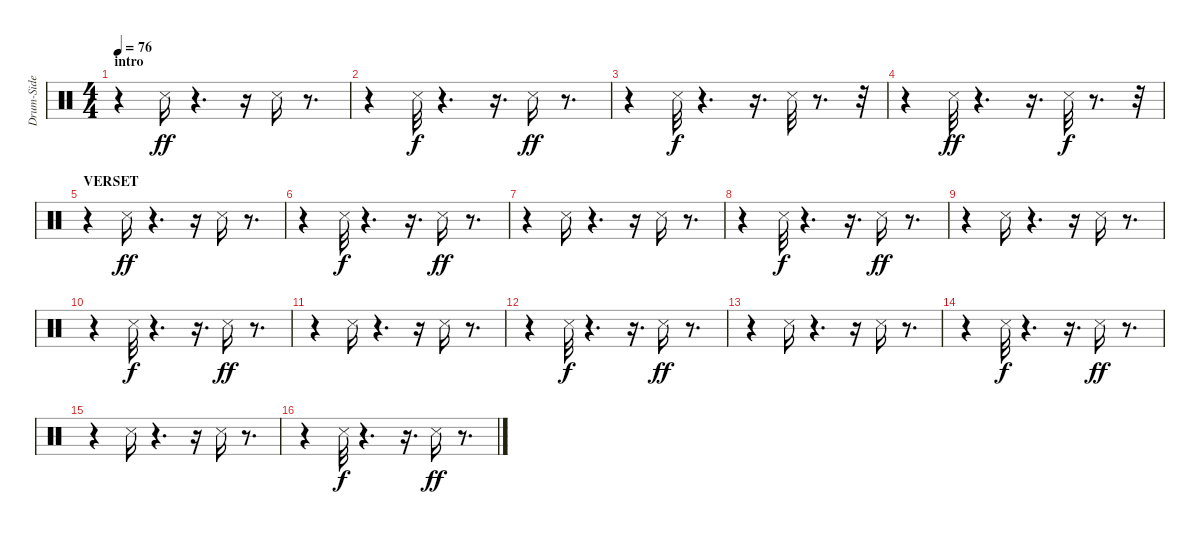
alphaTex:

\track ("Drum-Side Stick" "Drum-Side ") {instrument percussion}
\staff {score}
\articulation defaults
\ts (4 4)
\section ("" "intro")
\tempo 76
\clef neutral
\ks c
r.4{dy ff} "Snare (side stick) 3".16 r.4{d} r.16 "Snare (side stick) 3".16 r.8{d} |
r.4 "Snare (side stick) 3".32{dy f} r.4{d} r.16{d} "Snare (side stick) 3".16{dy ff} r.8{d} |
r.4 "Snare (side stick) 3".32{dy f} r.4{d} r.16{d} "Snare (side stick) 3".32 r.8{d} r.32 |
r.4 "Snare (side stick) 3".32{dy ff} r.4{d} r.16{d} "Snare (side stick) 3".32{dy f} r.8{d} r.32 |
\section ("" "VERSET")
r.4 "Snare (side stick) 3".16{dy ff} r.4{d} r.16 "Snare (side stick) 3".16 r.8{d} |
r.4 "Snare (side stick) 3".32{dy f} r.4{d} r.16{d} "Snare (side stick) 3".16{dy ff} r.8{d} |
r.4 "Snare (side stick) 3".16 r.4{d} r.16 "Snare (side stick) 3".16 r.8{d} |
r.4 "Snare (side stick) 3".32{dy f} r.4{d} r.16{d} "Snare (side stick) 3".16{dy ff} r.8{d} |
r.4 "Snare (side stick) 3".16 r.4{d} r.16 "Snare (side stick) 3".16 r.8{d} |
r.4 "Snare (side stick) 3".32{dy f} r.4{d} r.16{d} "Snare (side stick) 3".16{dy ff} r.8{d} |
r.4 "Snare (side stick) 3".16 r.4{d} r.16 "Snare (side stick) 3".16 r.8{d} |
r.4 "Snare (side stick) 3".32{dy f} r.4{d} r.16{d} "Snare (side stick) 3".16{dy ff} r.8{d} |
r.4 "Snare (side stick) 3".16 r.4{d} r.16 "Snare (side stick) 3".16 r.8{d} |
r.4 "Snare (side stick) 3".32{dy f} r.4{d} r.16{d} "Snare (side stick) 3".16{dy ff} r.8{d} |
r.4 "Snare (side stick) 3".16 r.4{d} r.16 "Snare (side stick) 3".16 r.8{d} |
r.4 "Snare (side stick) 3".32{dy f} r.4{d} r.16{d} "Snare (side stick) 3".16{dy ff} r.8{d}
